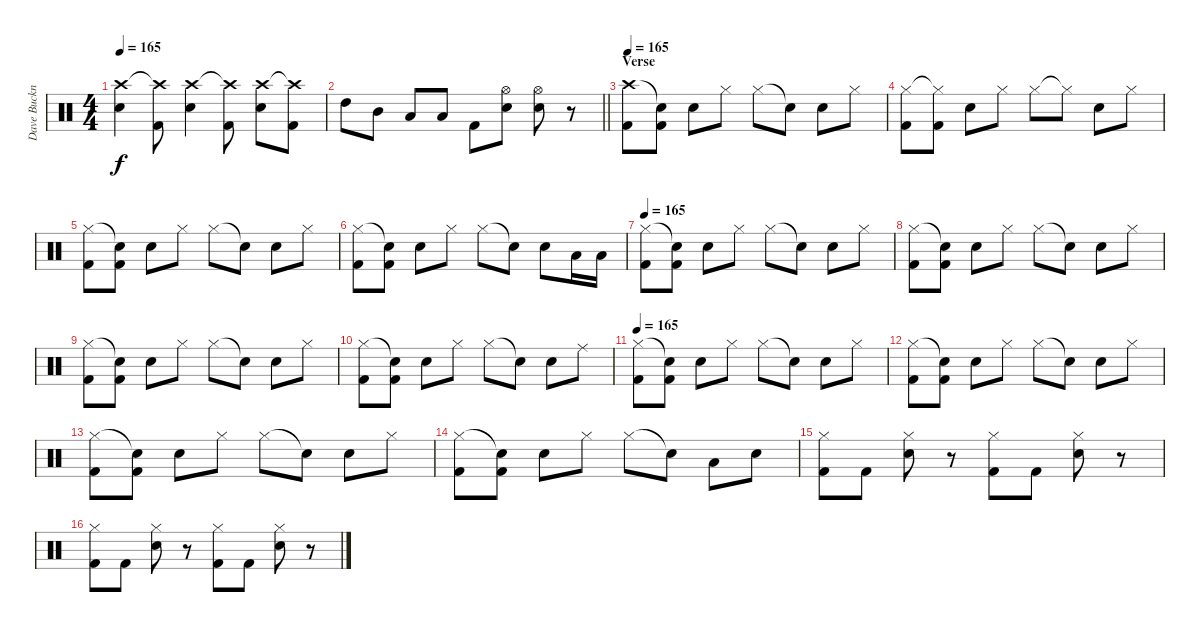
\track ("Dave Buckner " "Dave Buckn") {instrument percussion}
\staff {score}
\articulation defaults
\ts (4 4)
\tempo 165
\clef neutral
\ks c
("Crash high (hit)" "Snare (hit) 2").4{dy f} ("Crash high (hit)"{t} "Kick (hit) 2").8 ("Crash high (hit)" "Snare (hit) 2").4 ("Crash high (hit)"{t} "Kick (hit) 2").8 ("Crash high (hit)" "Snare (hit) 2").8 ("Crash high (hit)"{t} "Kick (hit) 2").8 |
\barLineRight lightlight "High Tom (hit)".8 "Mid Tom (hit)".8 "Low Tom (hit)".8 "Low Tom (hit)".8 "Kick (hit) 2".8
("Hi-Hat (open)" "Snare (hit) 2").8 ("Hi-Hat (open)" "Snare (hit) 2").8 r.8 |
\section ("" "Verse")
\tempo 165
("Crash high (hit)" "Kick (hit) 2").8 ("Snare (hit)"{t} "Kick (hit) 2").8 "Snare (hit) 2".8 "Hi-Hat (closed)".8 "Hi-Hat (closed)".8 "Snare (hit)"{t}.8 "Snare (hit) 2".8 "Hi-Hat (closed)".8 |
("Hi-Hat (closed)" "Kick (hit) 2").8 ("Hi-Hat (closed)"{t} "Kick (hit) 2").8 "Snare (hit) 2".8 "Hi-Hat (closed)".8 "Hi-Hat (closed)".8 "Hi-Hat (closed)"{t}.8 "Snare (hit) 2".8 "Hi-Hat (closed)".8 |
("Hi-Hat (closed)" "Kick (hit) 2").8 ("Snare (hit)"{t} "Kick (hit) 2").8 "Snare (hit) 2".8 "Hi-Hat (closed)".8 "Hi-Hat (closed)".8 "Snare (hit)"{t}.8 "Snare (hit) 2".8 "Hi-Hat (closed)".8 |
("Hi-Hat (closed)" "Kick (hit) 2").8 ("Snare (hit)"{t} "Kick (hit) 2").8 "Snare (hit) 2".8 "Hi-Hat (closed)".8 "Hi-Hat (closed)".8 "Snare (hit)"{t}.8 "Snare (hit) 2".8 "Low Tom (hit)".16 "Low Tom (hit)".16 |
\tempo 165
("Hi-Hat (closed)" "Kick (hit) 2").8 ("Snare (hit)"{t} "Kick (hit) 2").8 "Snare (hit) 2".8 "Hi-Hat (closed)".8 "Hi-Hat (closed)".8 "Snare (hit)"{t}.8 "Snare (hit) 2".8 "Hi-Hat (closed)".8 |
("Hi-Hat (closed)" "Kick (hit) 2").8 ("Snare (hit)"{t} "Kick (hit) 2").8 "Snare (hit) 2".8 "Hi-Hat (closed)".8 "Hi-Hat (closed)".8 "Snare (hit)"{t}.8 "Snare (hit) 2".8 "Hi-Hat (closed)".8 |
("Hi-Hat (closed)" "Kick (hit) 2").8 ("Snare (hit)"{t} "Kick (hit) 2").8 "Snare (hit) 2".8 "Hi-Hat (closed)".8 "Hi-Hat (closed)".8 "Snare (hit)"{t}.8 "Snare (hit) 2".8 "Hi-Hat (closed)".8 |
("Hi-Hat (closed)" "Kick (hit) 2").8 ("Snare (hit)"{t} "Kick (hit) 2").8 "Snare (hit) 2".8 "Hi-Hat (closed)".8 "Hi-Hat (closed)".8 "Snare (hit)"{t}.8 "Snare (hit) 2".8 "Ride (middle)".8 |
\tempo 165
("Hi-Hat (closed)" "Kick (hit) 2").8 ("Snare (hit)"{t} "Kick (hit) 2").8 "Snare (hit) 2".8 "Hi-Hat (closed)".8 "Hi-Hat (closed)".8 "Snare (hit)"{t}.8 "Snare (hit) 2".8 "Hi-Hat (closed)".8 |
("Hi-Hat (closed)" "Kick (hit) 2").8 ("Snare (hit)"{t} "Kick (hit) 2").8 "Snare (hit) 2".8 "Hi-Hat (closed)".8 "Hi-Hat (closed)".8 "Snare (hit)"{t}.8 "Snare (hit) 2".8 "Hi-Hat (closed)".8 |
("Hi-Hat (closed)" "Kick (hit) 2").8 ("Snare (hit)"{t} "Kick (hit) 2").8 "Snare (hit) 2".8 "Hi-Hat (closed)".8 "Hi-Hat (closed)".8 "Snare (hit)"{t}.8 "Snare (hit) 2".8 "Hi-Hat (closed)".8 |
("Hi-Hat (closed)" "Kick (hit) 2").8 ("Snare (hit)"{t} "Kick (hit) 2").8 "Snare (hit) 2".8 "Hi-Hat (closed)".8 "Hi-Hat (closed)".8 "Snare (hit)"{t}.8 "Low Tom (hit)".8 "Snare (hit) 2".8 |
("Hi-Hat (closed)" "Kick (hit) 2").8 "Kick (hit) 2".8 ("Hi-Hat (closed)" "Snare (hit) 2").8 r.8 ("Hi-Hat (closed)" "Kick (hit) 2").8 "Kick (hit) 2".8 ("Hi-Hat (closed)" "Snare (hit) 2").8 r.8 |
("Hi-Hat (closed)" "Kick (hit) 2").8 "Kick (hit) 2".8 ("Hi-Hat (closed)" "Snare (hit) 2").8 r.8 ("Hi-Hat (closed)" "Kick (hit) 2").8 "Kick (hit) 2".8 ("Hi-Hat (closed)" "Snare (hit) 2").8 r.8
